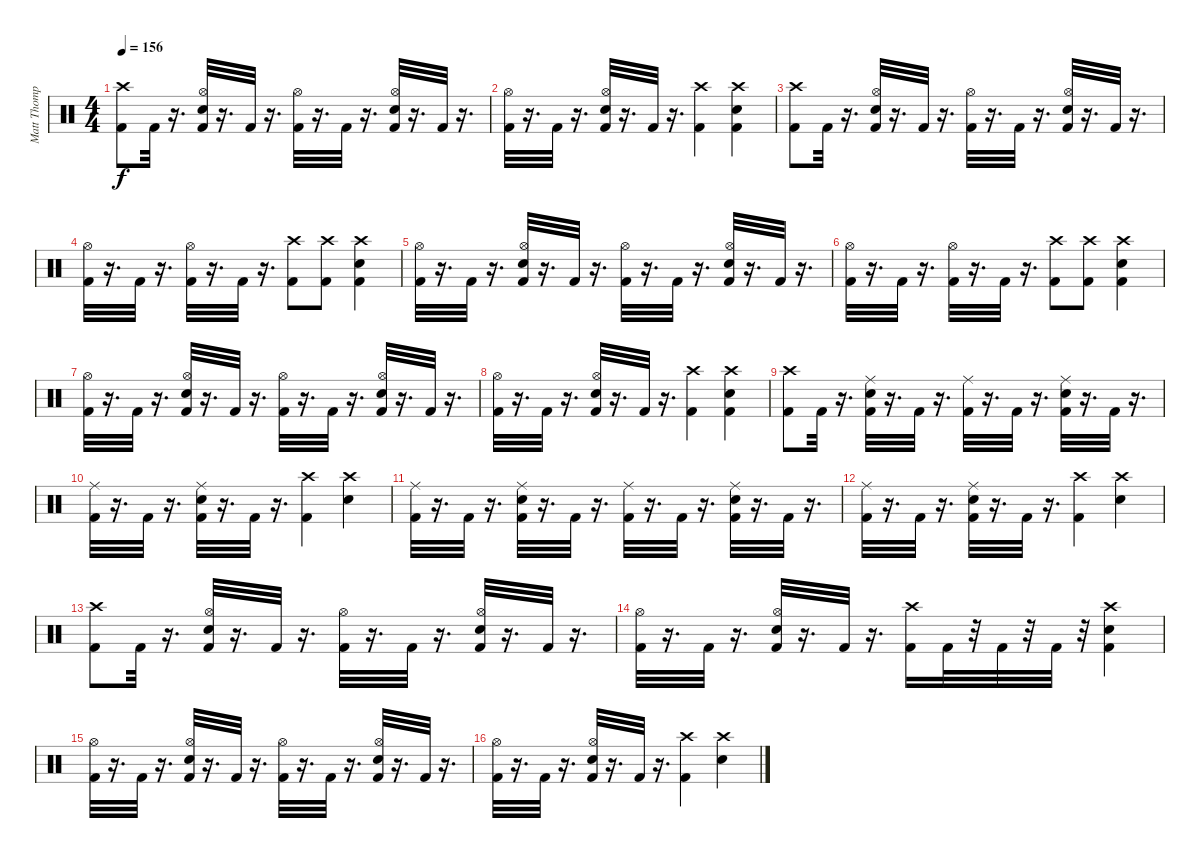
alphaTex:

\track ("Matt Thompson" "Matt Thomp") {instrument percussion}
\staff {score}
\articulation defaults
\ts (4 4)
\tempo 156
\clef neutral
\ks c
("Crash high (hit)" "Kick (hit) 2").8{dy f} "Kick (hit) 2".32 r.16{d} ("Hi-Hat (open)" "Snare (hit) 2" "Kick (hit) 2").32 r.16{d} "Kick (hit) 2".32 r.16{d} ("Hi-Hat (open)" "Kick (hit) 2").32 r.16{d} "Kick (hit) 2".32 r.16{d} ("Hi-Hat (open)" "Snare (hit) 2" "Kick (hit) 2").32 r.16{d} "Kick (hit) 2".32 r.16{d} |
("Hi-Hat (open)" "Kick (hit) 2").32 r.16{d} "Kick (hit) 2".32 r.16{d} ("Hi-Hat (open)" "Snare (hit) 2" "Kick (hit) 2").32 r.16{d} "Kick (hit) 2".32 r.16{d} ("Crash high (hit)" "Kick (hit) 2").4 ("Snare (hit) 2" "Crash high (hit)" "Kick (hit) 2").4 |
("Crash high (hit)" "Kick (hit) 2").8 "Kick (hit) 2".32 r.16{d} ("Hi-Hat (open)" "Snare (hit) 2" "Kick (hit) 2").32 r.16{d} "Kick (hit) 2".32 r.16{d} ("Hi-Hat (open)" "Kick (hit) 2").32 r.16{d} "Kick (hit) 2".32 r.16{d} ("Hi-Hat (open)" "Snare (hit) 2" "Kick (hit) 2").32 r.16{d} "Kick (hit) 2".32 r.16{d} |
("Hi-Hat (open)" "Kick (hit) 2").32 r.16{d} "Kick (hit) 2".32 r.16{d} ("Hi-Hat (open)" "Kick (hit) 2").32 r.16{d} "Kick (hit) 2".32 r.16{d} ("Crash high (hit)" "Kick (hit) 2").8 ("Crash high (hit)" "Kick (hit) 2").8 ("Crash high (hit)" "Snare (hit) 2" "Kick (hit) 2").4 |
("Hi-Hat (open)" "Kick (hit) 2").32 r.16{d} "Kick (hit) 2".32 r.16{d} ("Hi-Hat (open)" "Snare (hit) 2" "Kick (hit) 2").32 r.16{d} "Kick (hit) 2".32 r.16{d} ("Hi-Hat (open)" "Kick (hit) 2").32 r.16{d} "Kick (hit) 2".32 r.16{d} ("Hi-Hat (open)" "Snare (hit) 2" "Kick (hit) 2").32 r.16{d} "Kick (hit) 2".32 r.16{d} |
("Hi-Hat (open)" "Kick (hit) 2").32 r.16{d} "Kick (hit) 2".32 r.16{d} ("Hi-Hat (open)" "Kick (hit) 2").32 r.16{d} "Kick (hit) 2".32 r.16{d} ("Crash high (hit)" "Kick (hit) 2").8 ("Crash high (hit)" "Kick (hit) 2").8 ("Crash high (hit)" "Snare (hit) 2" "Kick (hit) 2").4 |
("Hi-Hat (open)" "Kick (hit) 2").32 r.16{d} "Kick (hit) 2".32 r.16{d} ("Hi-Hat (open)" "Snare (hit) 2" "Kick (hit) 2").32 r.16{d} "Kick (hit) 2".32 r.16{d} ("Hi-Hat (open)" "Kick (hit) 2").32 r.16{d} "Kick (hit) 2".32 r.16{d} ("Hi-Hat (open)" "Snare (hit) 2" "Kick (hit) 2").32 r.16{d} "Kick (hit) 2".32 r.16{d} |
("Hi-Hat (open)" "Kick (hit) 2").32 r.16{d} "Kick (hit) 2".32 r.16{d} ("Hi-Hat (open)" "Snare (hit) 2" "Kick (hit) 2").32 r.16{d} "Kick (hit) 2".32 r.16{d} ("Crash high (hit)" "Kick (hit) 2").4 ("Snare (hit) 2" "Crash high (hit)" "Kick (hit) 2").4 |
("Crash high (hit)" "Kick (hit) 2").8 "Kick (hit) 2".32 r.16{d} ("Snare (hit) 2" "Ride (middle)" "Kick (hit) 2").32 r.16{d} "Kick (hit) 2".32 r.16{d} ("Ride (middle)" "Kick (hit) 2").32 r.16{d} "Kick (hit) 2".32 r.16{d} ("Snare (hit) 2" "Ride (middle)" "Kick (hit) 2").32 r.16{d} "Kick (hit) 2".32 r.16{d} |
("Ride (middle)" "Kick (hit) 2").32 r.16{d} "Kick (hit) 2".32 r.16{d} ("Snare (hit) 2" "Ride (middle)" "Kick (hit) 2").32 r.16{d} "Kick (hit) 2".32 r.16{d} ("Crash high (hit)" "Kick (hit) 2").4 ("Crash high (hit)" "Snare (hit) 2").4 |
("Ride (middle)" "Kick (hit) 2").32 r.16{d} "Kick (hit) 2".32 r.16{d} ("Snare (hit) 2" "Ride (middle)" "Kick (hit) 2").32 r.16{d} "Kick (hit) 2".32 r.16{d} ("Ride (middle)" "Kick (hit) 2").32 r.16{d} "Kick (hit) 2".32 r.16{d} ("Snare (hit) 2" "Ride (middle)" "Kick (hit) 2").32 r.16{d} "Kick (hit) 2".32 r.16{d} |
("Ride (middle)" "Kick (hit) 2").32 r.16{d} "Kick (hit) 2".32 r.16{d} ("Snare (hit) 2" "Ride (middle)" "Kick (hit) 2").32 r.16{d} "Kick (hit) 2".32 r.16{d} ("Crash high (hit)" "Kick (hit) 2").4 ("Crash high (hit)" "Snare (hit) 2").4 |
("Crash high (hit)" "Kick (hit) 2").8 "Kick (hit) 2".32 r.16{d} ("Snare (hit) 2" "Hi-Hat (open)" "Kick (hit) 2").32 r.16{d} "Kick (hit) 2".32 r.16{d} ("Hi-Hat (open)" "Kick (hit) 2").32 r.16{d} "Kick (hit) 2".32 r.16{d} ("Snare (hit) 2" "Hi-Hat (open)" "Kick (hit) 2").32 r.16{d} "Kick (hit) 2".32 r.16{d} |
("Hi-Hat (open)" "Kick (hit) 2").32 r.16{d} "Kick (hit) 2".32 r.16{d} ("Snare (hit) 2" "Hi-Hat (open)" "Kick (hit) 2").32 r.16{d} "Kick (hit) 2".32 r.16{d} ("Crash high (hit)" "Kick (hit) 2").16 "Kick (hit) 2".32 r.32 "Kick (hit) 2".32 r.32 "Kick (hit) 2".32 r.32 ("Snare (hit) 2" "Crash high (hit)" "Kick (hit) 2").4 |
("Hi-Hat (open)" "Kick (hit) 2").32 r.16{d} "Kick (hit) 2".32 r.16{d} ("Snare (hit) 2" "Hi-Hat (open)" "Kick (hit) 2").32 r.16{d} "Kick (hit) 2".32 r.16{d} ("Hi-Hat (open)" "Kick (hit) 2").32 r.16{d} "Kick (hit) 2".32 r.16{d} ("Snare (hit) 2" "Hi-Hat (open)" "Kick (hit) 2").32 r.16{d} "Kick (hit) 2".32 r.16{d} |
("Hi-Hat (open)" "Kick (hit) 2").32 r.16{d} "Kick (hit) 2".32 r.16{d} ("Snare (hit) 2" "Hi-Hat (open)" "Kick (hit) 2").32 r.16{d} "Kick (hit) 2".32 r.16{d} ("Crash high (hit)" "Kick (hit) 2").4 ("Crash high (hit)" "Snare (hit) 2").4
